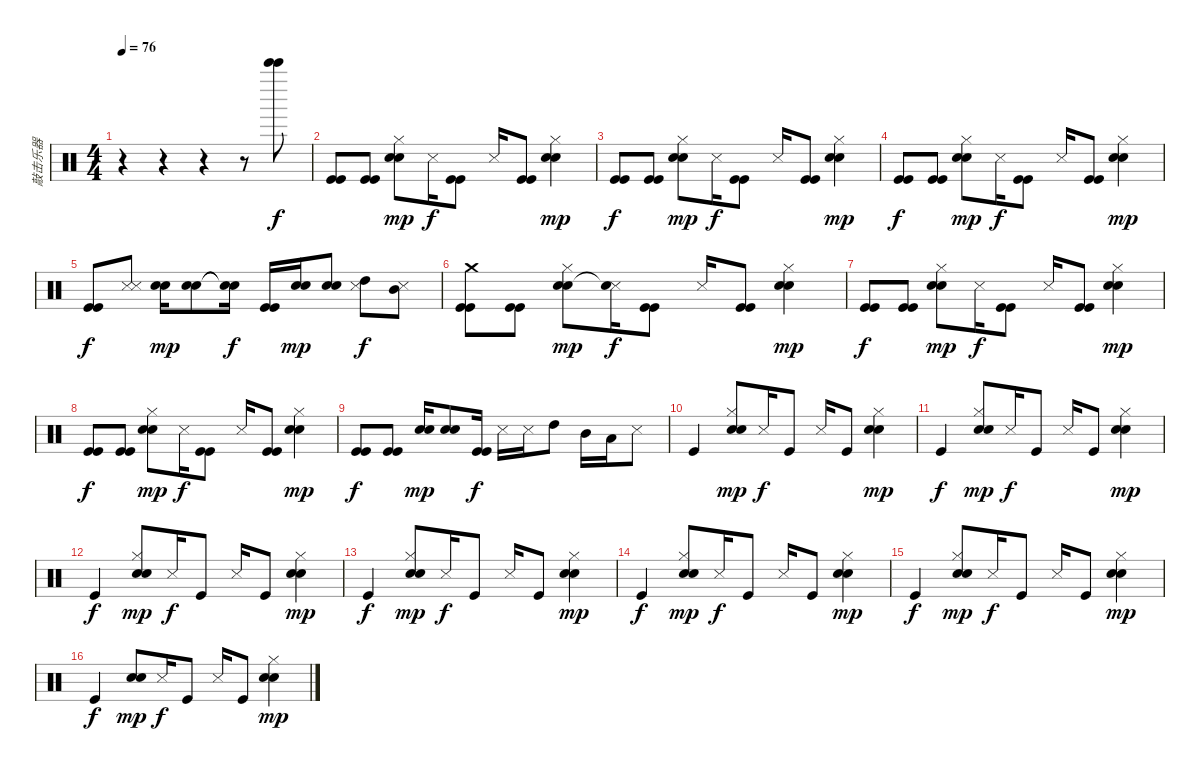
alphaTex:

\track ("敲击乐器" "敲击乐器") {instrument percussion}
\staff {score}
\articulation defaults
\ts (4 4)
\tempo 76
\clef neutral
\ks c
r.4{dy f} r.4 r.4 r.8 ("Bell Tree (hit)" "Bell Tree (hit)").8 |
("Kick (hit)" "Kick (hit)").8 ("Kick (hit)" "Kick (hit)").8 ("Electric Snare (hit)" "Metronome (bell)" "Hi-Hat (closed)").8{dy mp} "Metronome (hit)".16{dy f} ("Kick (hit)" "Kick (hit)").8 "Metronome (hit)".16 ("Kick (hit)" "Kick (hit)").8 ("Electric Snare (hit)" "Metronome (bell)" "Hi-Hat (closed)").4{dy mp} |
("Kick (hit)" "Kick (hit)").8{dy f} ("Kick (hit)" "Kick (hit)").8 ("Electric Snare (hit)" "Metronome (bell)" "Hi-Hat (closed)").8{dy mp} "Metronome (hit)".16{dy f} ("Kick (hit)" "Kick (hit)").8 "Metronome (hit)".16 ("Kick (hit)" "Kick (hit)").8 ("Electric Snare (hit)" "Metronome (bell)" "Hi-Hat (closed)").4{dy mp} |
("Kick (hit)" "Kick (hit)").8{dy f} ("Kick (hit)" "Kick (hit)").8 ("Electric Snare (hit)" "Metronome (bell)" "Hi-Hat (closed)").8{dy mp} "Metronome (hit)".16{dy f} ("Kick (hit)" "Kick (hit)").8 "Metronome (hit)".16 ("Kick (hit)" "Kick (hit)").8 ("Electric Snare (hit)" "Metronome (bell)" "Hi-Hat (closed)").4{dy mp} |
("Kick (hit)" "Kick (hit)").8{dy f} ("Metronome (hit)" "Metronome (hit)").8 ("Electric Snare (hit)" "Metronome (bell)").16{dy mp} ("Electric Snare (hit)" "Metronome (bell)").8 ("Snare (hit)"{t} "Snare (hit)"{t}).16{dy f} ("Kick (hit)" "Kick (hit)").16 ("Electric Snare (hit)" "Metronome (bell)").16{dy mp} ("Electric Snare (hit)" "Metronome (bell)").8 ("High Tom (hit)" "Metronome (hit)").8{dy f} ("Mid Tom (hit)" "Metronome (hit)").8 |
("Kick (hit)" "Kick (hit)" "Crash medium (hit)").8 ("Kick (hit)" "Kick (hit)").8 ("Electric Snare (hit)" "Metronome (bell)" "Hi-Hat (closed)").8{dy mp} ("Metronome (hit)" "Snare (hit)"{t}).16{dy f} ("Kick (hit)" "Kick (hit)").8 "Metronome (hit)".16 ("Kick (hit)" "Kick (hit)").8 ("Electric Snare (hit)" "Metronome (bell)" "Hi-Hat (closed)").4{dy mp} |
("Kick (hit)" "Kick (hit)").8{dy f} ("Kick (hit)" "Kick (hit)").8 ("Electric Snare (hit)" "Metronome (bell)" "Hi-Hat (closed)").8{dy mp} "Metronome (hit)".16{dy f} ("Kick (hit)" "Kick (hit)").8 "Metronome (hit)".16 ("Kick (hit)" "Kick (hit)").8 ("Electric Snare (hit)" "Metronome (bell)" "Hi-Hat (closed)").4{dy mp} |
("Kick (hit)" "Kick (hit)").8{dy f} ("Kick (hit)" "Kick (hit)").8 ("Electric Snare (hit)" "Metronome (bell)" "Hi-Hat (closed)").8{dy mp} "Metronome (hit)".16{dy f} ("Kick (hit)" "Kick (hit)").8 "Metronome (hit)".16 ("Kick (hit)" "Kick (hit)").8 ("Electric Snare (hit)" "Metronome (bell)" "Hi-Hat (closed)").4{dy mp} |
("Kick (hit)" "Kick (hit)").8{dy f} ("Kick (hit)" "Kick (hit)").8 ("Electric Snare (hit)" "Metronome (bell)").16{dy mp} ("Electric Snare (hit)" "Metronome (bell)").8 ("Kick (hit)" "Kick (hit)").16{dy f} "Metronome (hit)".16 "Metronome (hit)".16 "High Tom (hit)".8 "Mid Tom (hit)".16 "Low Tom (hit)".16 "Metronome (hit)".8 |
"Kick (hit)".4 ("Snare (hit) 2" "Metronome (bell)" "Hi-Hat (closed)").8{dy mp} "Metronome (hit)".16{dy f} "Kick (hit)".8 "Metronome (hit)".16 "Kick (hit)".8 ("Snare (hit) 2" "Metronome (bell)" "Hi-Hat (closed)").4{dy mp} |
"Kick (hit)".4{dy f} ("Snare (hit) 2" "Metronome (bell)" "Hi-Hat (closed)").8{dy mp} "Metronome (hit)".16{dy f} "Kick (hit)".8 "Metronome (hit)".16 "Kick (hit)".8 ("Snare (hit) 2" "Metronome (bell)" "Hi-Hat (closed)").4{dy mp} |
"Kick (hit)".4{dy f} ("Snare (hit) 2" "Metronome (bell)" "Hi-Hat (closed)").8{dy mp} "Metronome (hit)".16{dy f} "Kick (hit)".8 "Metronome (hit)".16 "Kick (hit)".8 ("Snare (hit) 2" "Metronome (bell)" "Hi-Hat (closed)").4{dy mp} |
"Kick (hit)".4{dy f} ("Snare (hit) 2" "Metronome (bell)" "Hi-Hat (closed)").8{dy mp} "Metronome (hit)".16{dy f} "Kick (hit)".8 "Metronome (hit)".16 "Kick (hit)".8 ("Snare (hit) 2" "Metronome (bell)" "Hi-Hat (closed)").4{dy mp} |
"Kick (hit)".4{dy f} ("Snare (hit) 2" "Metronome (bell)" "Hi-Hat (closed)").8{dy mp} "Metronome (hit)".16{dy f} "Kick (hit)".8 "Metronome (hit)".16 "Kick (hit)".8 ("Snare (hit) 2" "Metronome (bell)" "Hi-Hat (closed)").4{dy mp} |
"Kick (hit)".4{dy f} ("Snare (hit) 2" "Metronome (bell)" "Hi-Hat (closed)").8{dy mp} "Metronome (hit)".16{dy f} "Kick (hit)".8 "Metronome (hit)".16 "Kick (hit)".8 ("Snare (hit) 2" "Metronome (bell)" "Hi-Hat (closed)").4{dy mp} |
"Kick (hit)".4{dy f} ("Snare (hit) 2" "Metronome (bell)").8{dy mp} "Metronome (hit)".16{dy f} "Kick (hit)".8 "Metronome (hit)".16 "Kick (hit)".8 ("Snare (hit) 2" "Metronome (bell)" "Hi-Hat (closed)").4{dy mp}
